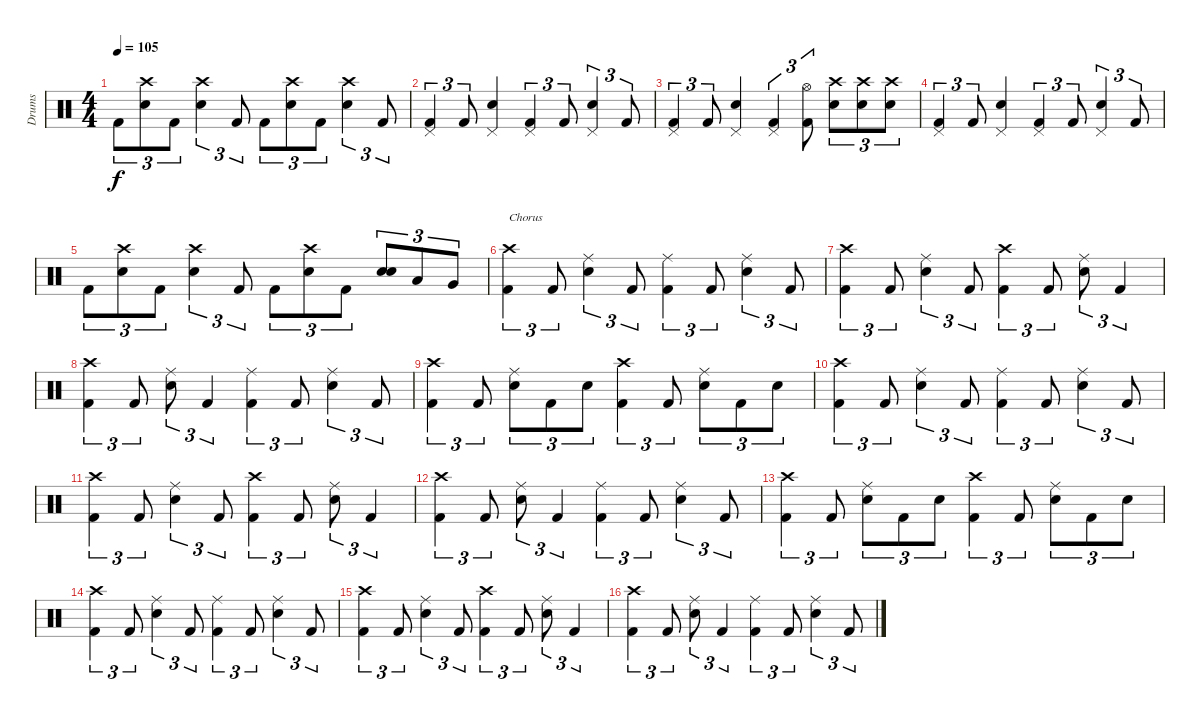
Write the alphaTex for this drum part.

\track ("Drums" "Drums") {instrument percussion}
\staff {score}
\articulation defaults
\ts (4 4)
\tempo 105
\clef neutral
\ks c "Kick (hit) 2".8{tu (3 2) dy f}
("Crash high (hit)" "Snare (hit) 2").8{tu (3 2)} "Kick (hit) 2".8{tu (3 2)} ("Crash high (hit)" "Snare (hit) 2").4{tu (3 2)} "Kick (hit) 2".8{tu (3 2)} "Kick (hit) 2".8{tu (3 2)} ("Crash high (hit)" "Snare (hit) 2").8{tu (3 2)} "Kick (hit) 2".8{tu (3 2)} ("Crash high (hit)" "Snare (hit) 2").4{tu (3 2)} "Kick (hit) 2".8{tu (3 2)} |
("Pedal Hi-Hat (hit)" "Kick (hit) 2").4{tu (3 2)} "Kick (hit) 2".8{tu (3 2)} ("Pedal Hi-Hat (hit)" "Snare (hit) 2").4 ("Pedal Hi-Hat (hit)" "Kick (hit) 2").4{tu (3 2)} "Kick (hit) 2".8{tu (3 2)} ("Pedal Hi-Hat (hit)" "Snare (hit) 2").4{tu (3 2)} "Kick (hit) 2".8{tu (3 2)} |
("Pedal Hi-Hat (hit)" "Kick (hit) 2").4{tu (3 2)} "Kick (hit) 2".8{tu (3 2)} ("Pedal Hi-Hat (hit)" "Snare (hit) 2").4 ("Pedal Hi-Hat (hit)" "Kick (hit) 2").4{tu (3 2)} ("Hi-Hat (open)" "Kick (hit) 2").8{tu (3 2)} ("Crash high (hit)" "Snare (hit) 2").8{tu (3 2)} ("Crash high (hit)" "Snare (hit) 2").8{tu (3 2)} ("Crash high (hit)" "Snare (hit) 2").8{tu (3 2)} |
("Pedal Hi-Hat (hit)" "Kick (hit) 2").4{tu (3 2)} "Kick (hit) 2".8{tu (3 2)} ("Pedal Hi-Hat (hit)" "Snare (hit) 2").4 ("Pedal Hi-Hat (hit)" "Kick (hit) 2").4{tu (3 2)} "Kick (hit) 2".8{tu (3 2)} ("Pedal Hi-Hat (hit)" "Snare (hit) 2").4{tu (3 2)} "Kick (hit) 2".8{tu (3 2)} |
"Kick (hit) 2".8{tu (3 2)} ("Crash high (hit)" "Snare (hit) 2").8{tu (3 2)} "Kick (hit) 2".8{tu (3 2)} ("Crash high (hit)" "Snare (hit) 2").4{tu (3 2)} "Kick (hit) 2".8{tu (3 2)} "Kick (hit) 2".8{tu (3 2)} ("Crash high (hit)" "Snare (hit) 2").8{tu (3 2)} "Kick (hit) 2".8{tu (3 2)} ("Snare (hit) 2" "Snare (hit) 2").8{tu (3 2)} "Low Tom (hit)".8{tu (3 2)} "Very Low Tom (hit)".8{tu (3 2)} |
("Crash high (hit)" "Kick (hit) 2").4{tu (3 2) txt "Chorus"} "Kick (hit) 2".8{tu (3 2)} ("Ride (middle)" "Snare (hit) 2").4{tu (3 2)} "Kick (hit) 2".8{tu (3 2)} ("Ride (middle)" "Kick (hit) 2").4{tu (3 2)} "Kick (hit) 2".8{tu (3 2)} ("Ride (middle)" "Snare (hit) 2").4{tu (3 2)} "Kick (hit) 2".8{tu (3 2)} |
("Crash high (hit)" "Kick (hit) 2").4{tu (3 2)} "Kick (hit) 2".8{tu (3 2)} ("Ride (middle)" "Snare (hit) 2").4{tu (3 2)} "Kick (hit) 2".8{tu (3 2)} ("Crash high (hit)" "Kick (hit) 2").4{tu (3 2)} "Kick (hit) 2".8{tu (3 2)} ("Ride (middle)" "Snare (hit) 2").8{tu (3 2)} "Kick (hit) 2".4{tu (3 2)} |
("Crash high (hit)" "Kick (hit) 2").4{tu (3 2)} "Kick (hit) 2".8{tu (3 2)} ("Ride (middle)" "Snare (hit) 2").8{tu (3 2)} "Kick (hit) 2".4{tu (3 2)} ("Ride (middle)" "Kick (hit) 2").4{tu (3 2)} "Kick (hit) 2".8{tu (3 2)} ("Ride (middle)" "Snare (hit) 2").4{tu (3 2)} "Kick (hit) 2".8{tu (3 2)} |
("Crash high (hit)" "Kick (hit) 2").4{tu (3 2)} "Kick (hit) 2".8{tu (3 2)} ("Ride (middle)" "Snare (hit) 2").8{tu (3 2)} "Kick (hit) 2".8{tu (3 2)} "Snare (hit) 2".8{tu (3 2)} ("Crash high (hit)" "Kick (hit) 2").4{tu (3 2)} "Kick (hit) 2".8{tu (3 2)} ("Ride (middle)" "Snare (hit) 2").8{tu (3 2)} "Kick (hit) 2".8{tu (3 2)} "Snare (hit) 2".8{tu (3 2)} |
("Crash high (hit)" "Kick (hit) 2").4{tu (3 2)} "Kick (hit) 2".8{tu (3 2)} ("Ride (middle)" "Snare (hit) 2").4{tu (3 2)} "Kick (hit) 2".8{tu (3 2)} ("Ride (middle)" "Kick (hit) 2").4{tu (3 2)} "Kick (hit) 2".8{tu (3 2)} ("Ride (middle)" "Snare (hit) 2").4{tu (3 2)} "Kick (hit) 2".8{tu (3 2)} |
("Crash high (hit)" "Kick (hit) 2").4{tu (3 2)} "Kick (hit) 2".8{tu (3 2)} ("Ride (middle)" "Snare (hit) 2").4{tu (3 2)} "Kick (hit) 2".8{tu (3 2)} ("Crash high (hit)" "Kick (hit) 2").4{tu (3 2)} "Kick (hit) 2".8{tu (3 2)} ("Ride (middle)" "Snare (hit) 2").8{tu (3 2)} "Kick (hit) 2".4{tu (3 2)} |
("Crash high (hit)" "Kick (hit) 2").4{tu (3 2)} "Kick (hit) 2".8{tu (3 2)} ("Ride (middle)" "Snare (hit) 2").8{tu (3 2)} "Kick (hit) 2".4{tu (3 2)} ("Ride (middle)" "Kick (hit) 2").4{tu (3 2)} "Kick (hit) 2".8{tu (3 2)} ("Ride (middle)" "Snare (hit) 2").4{tu (3 2)} "Kick (hit) 2".8{tu (3 2)} |
("Crash high (hit)" "Kick (hit) 2").4{tu (3 2)} "Kick (hit) 2".8{tu (3 2)} ("Ride (middle)" "Snare (hit) 2").8{tu (3 2)} "Kick (hit) 2".8{tu (3 2)} "Snare (hit) 2".8{tu (3 2)} ("Crash high (hit)" "Kick (hit) 2").4{tu (3 2)} "Kick (hit) 2".8{tu (3 2)} ("Ride (middle)" "Snare (hit) 2").8{tu (3 2)} "Kick (hit) 2".8{tu (3 2)} "Snare (hit) 2".8{tu (3 2)} |
("Crash high (hit)" "Kick (hit) 2").4{tu (3 2)} "Kick (hit) 2".8{tu (3 2)} ("Ride (middle)" "Snare (hit) 2").4{tu (3 2)} "Kick (hit) 2".8{tu (3 2)} ("Ride (middle)" "Kick (hit) 2").4{tu (3 2)} "Kick (hit) 2".8{tu (3 2)} ("Ride (middle)" "Snare (hit) 2").4{tu (3 2)} "Kick (hit) 2".8{tu (3 2)} |
("Crash high (hit)" "Kick (hit) 2").4{tu (3 2)} "Kick (hit) 2".8{tu (3 2)} ("Ride (middle)" "Snare (hit) 2").4{tu (3 2)} "Kick (hit) 2".8{tu (3 2)} ("Crash high (hit)" "Kick (hit) 2").4{tu (3 2)} "Kick (hit) 2".8{tu (3 2)} ("Ride (middle)" "Snare (hit) 2").8{tu (3 2)} "Kick (hit) 2".4{tu (3 2)} |
("Crash high (hit)" "Kick (hit) 2").4{tu (3 2)} "Kick (hit) 2".8{tu (3 2)} ("Ride (middle)" "Snare (hit) 2").8{tu (3 2)} "Kick (hit) 2".4{tu (3 2)} ("Ride (middle)" "Kick (hit) 2").4{tu (3 2)} "Kick (hit) 2".8{tu (3 2)} ("Ride (middle)" "Snare (hit) 2").4{tu (3 2)} "Kick (hit) 2".8{tu (3 2)}
